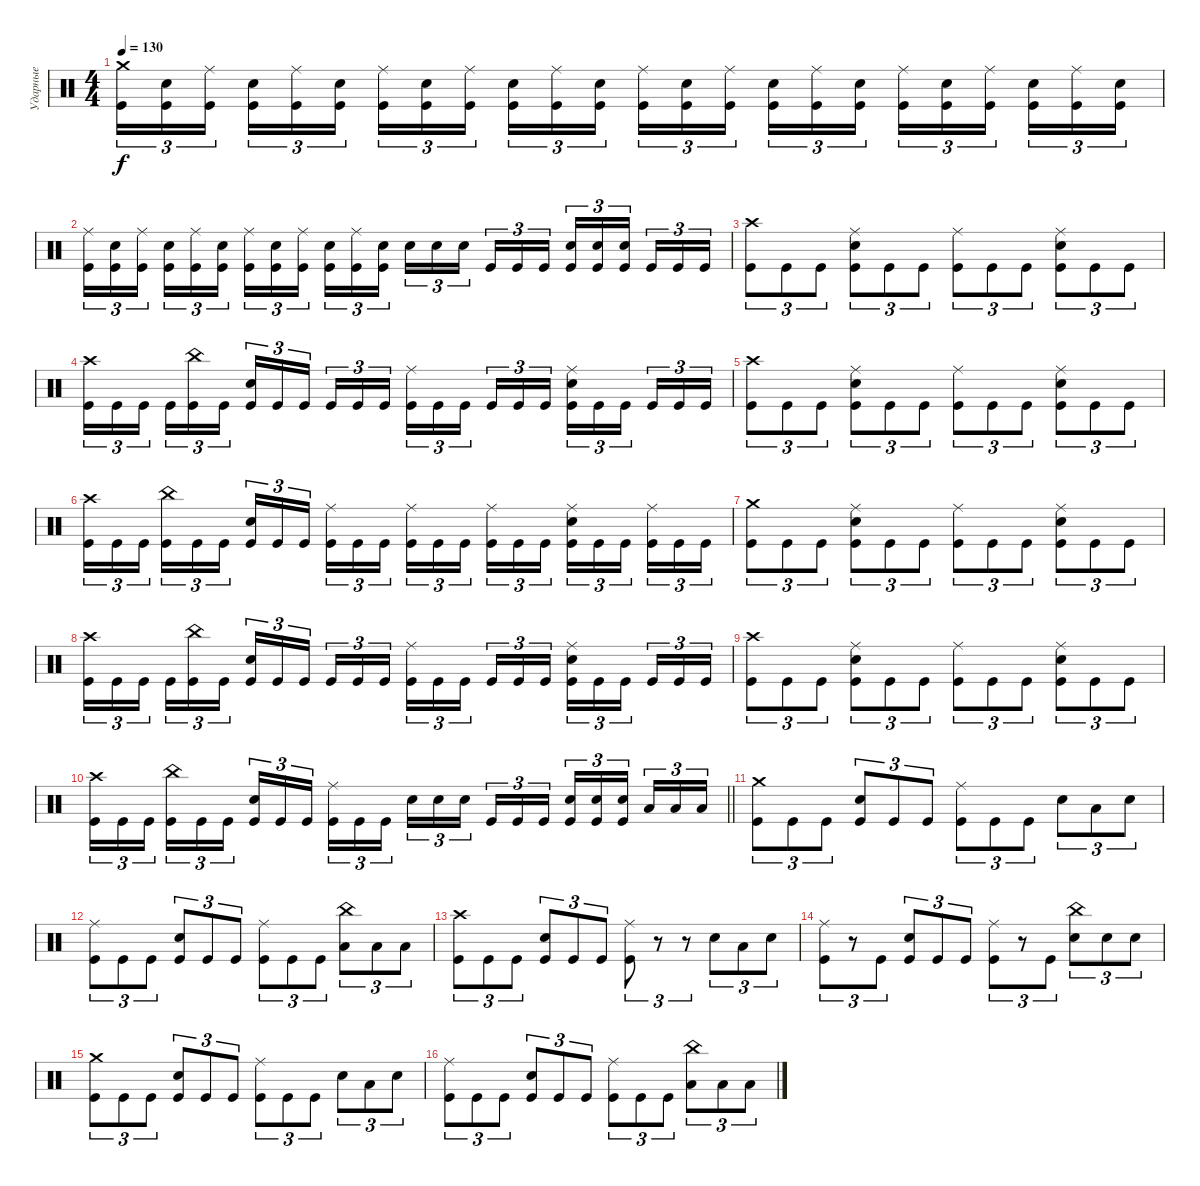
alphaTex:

\track ("Ударные" "Ударные") {instrument percussion}
\staff {score}
\articulation defaults
\ts (4 4)
\tempo 130
\clef neutral
\ks c
("Crash medium (hit)" "Kick (hit)").16{tu (3 2) dy f} ("Electric Snare (hit)" "Kick (hit)").16{tu (3 2)} ("Ride (middle)" "Kick (hit)").16{tu (3 2) beam splitsecondary} ("Electric Snare (hit)" "Kick (hit)").16{tu (3 2)} ("Ride (middle)" "Kick (hit)").16{tu (3 2)} ("Electric Snare (hit)" "Kick (hit)").16{tu (3 2)} ("Ride (middle)" "Kick (hit)").16{tu (3 2)} ("Electric Snare (hit)" "Kick (hit)").16{tu (3 2)} ("Ride (middle)" "Kick (hit)").16{tu (3 2) beam splitsecondary} ("Electric Snare (hit)" "Kick (hit)").16{tu (3 2)} ("Ride (middle)" "Kick (hit)").16{tu (3 2)} ("Electric Snare (hit)" "Kick (hit)").16{tu (3 2)} ("Ride (middle)" "Kick (hit)").16{tu (3 2)} ("Electric Snare (hit)" "Kick (hit)").16{tu (3 2)} ("Ride (middle)" "Kick (hit)").16{tu (3 2) beam splitsecondary} ("Electric Snare (hit)" "Kick (hit)").16{tu (3 2)} ("Ride (middle)" "Kick (hit)").16{tu (3 2)} ("Electric Snare (hit)" "Kick (hit)").16{tu (3 2)} ("Ride (middle)" "Kick (hit)").16{tu (3 2)} ("Electric Snare (hit)" "Kick (hit)").16{tu (3 2)} ("Ride (middle)" "Kick (hit)").16{tu (3 2) beam splitsecondary} ("Electric Snare (hit)" "Kick (hit)").16{tu (3 2)} ("Ride (middle)" "Kick (hit)").16{tu (3 2)} ("Electric Snare (hit)" "Kick (hit)").16{tu (3 2)} |
("Ride (middle)" "Kick (hit)").16{tu (3 2)} ("Electric Snare (hit)" "Kick (hit)").16{tu (3 2)} ("Ride (middle)" "Kick (hit)").16{tu (3 2) beam splitsecondary} ("Electric Snare (hit)" "Kick (hit)").16{tu (3 2)} ("Ride (middle)" "Kick (hit)").16{tu (3 2)} ("Electric Snare (hit)" "Kick (hit)").16{tu (3 2)} ("Ride (middle)" "Kick (hit)").16{tu (3 2)} ("Electric Snare (hit)" "Kick (hit)").16{tu (3 2)} ("Ride (middle)" "Kick (hit)").16{tu (3 2) beam splitsecondary} ("Electric Snare (hit)" "Kick (hit)").16{tu (3 2)} ("Ride (middle)" "Kick (hit)").16{tu (3 2)} ("Electric Snare (hit)" "Kick (hit)").16{tu (3 2)} "Electric Snare (hit)".16{tu (3 2)} "Electric Snare (hit)".16{tu (3 2)} "Electric Snare (hit)".16{tu (3 2) beam splitsecondary} "Kick (hit)".16{tu (3 2)} "Kick (hit)".16{tu (3 2)} "Kick (hit)".16{tu (3 2)} ("Electric Snare (hit)" "Kick (hit)").16{tu (3 2)} ("Electric Snare (hit)" "Kick (hit)").16{tu (3 2)} ("Electric Snare (hit)" "Kick (hit)").16{tu (3 2) beam splitsecondary} "Kick (hit)".16{tu (3 2)} "Kick (hit)".16{tu (3 2)} "Kick (hit)".16{tu (3 2)} |
("Crash high (hit)" "Kick (hit)").8{tu (3 2)} "Kick (hit)".8{tu (3 2)} "Kick (hit)".8{tu (3 2)} ("Ride (middle)" "Electric Snare (hit)" "Kick (hit)").8{tu (3 2)} "Kick (hit)".8{tu (3 2)} "Kick (hit)".8{tu (3 2)} ("Ride (middle)" "Kick (hit)").8{tu (3 2)} "Kick (hit)".8{tu (3 2)} "Kick (hit)".8{tu (3 2)} ("Ride (middle)" "Electric Snare (hit)" "Kick (hit)").8{tu (3 2)} "Kick (hit)".8{tu (3 2)} "Kick (hit)".8{tu (3 2)} |
("Crash high (hit)" "Kick (hit)").16{tu (3 2)} "Kick (hit)".16{tu (3 2)} "Kick (hit)".16{tu (3 2) beam splitsecondary} "Kick (hit)".16{tu (3 2)} ("China (hit)" "Kick (hit)").16{tu (3 2)} "Kick (hit)".16{tu (3 2)} ("Electric Snare (hit)" "Kick (hit)").16{tu (3 2)} "Kick (hit)".16{tu (3 2)} "Kick (hit)".16{tu (3 2) beam splitsecondary} "Kick (hit)".16{tu (3 2)} "Kick (hit)".16{tu (3 2)} "Kick (hit)".16{tu (3 2)} ("Ride (middle)" "Kick (hit)").16{tu (3 2)} "Kick (hit)".16{tu (3 2)} "Kick (hit)".16{tu (3 2) beam splitsecondary} "Kick (hit)".16{tu (3 2)} "Kick (hit)".16{tu (3 2)} "Kick (hit)".16{tu (3 2)} ("Ride (middle)" "Electric Snare (hit)" "Kick (hit)").16{tu (3 2)} "Kick (hit)".16{tu (3 2)} "Kick (hit)".16{tu (3 2) beam splitsecondary} "Kick (hit)".16{tu (3 2)} "Kick (hit)".16{tu (3 2)} "Kick (hit)".16{tu (3 2)} |
("Crash high (hit)" "Kick (hit)").8{tu (3 2)} "Kick (hit)".8{tu (3 2)} "Kick (hit)".8{tu (3 2)} ("Ride (middle)" "Electric Snare (hit)" "Kick (hit)").8{tu (3 2)} "Kick (hit)".8{tu (3 2)} "Kick (hit)".8{tu (3 2)} ("Ride (middle)" "Kick (hit)").8{tu (3 2)} "Kick (hit)".8{tu (3 2)} "Kick (hit)".8{tu (3 2)} ("Ride (middle)" "Electric Snare (hit)" "Kick (hit)").8{tu (3 2)} "Kick (hit)".8{tu (3 2)} "Kick (hit)".8{tu (3 2)} |
("Crash high (hit)" "Kick (hit)").16{tu (3 2)} "Kick (hit)".16{tu (3 2)} "Kick (hit)".16{tu (3 2) beam splitsecondary} ("China (hit)" "Kick (hit)").16{tu (3 2)} "Kick (hit)".16{tu (3 2)} "Kick (hit)".16{tu (3 2)} ("Electric Snare (hit)" "Kick (hit)").16{tu (3 2)} "Kick (hit)".16{tu (3 2)} "Kick (hit)".16{tu (3 2) beam splitsecondary} ("Ride (middle)" "Kick (hit)").16{tu (3 2)} "Kick (hit)".16{tu (3 2)} "Kick (hit)".16{tu (3 2)} ("Ride (middle)" "Kick (hit)").16{tu (3 2)} "Kick (hit)".16{tu (3 2)} "Kick (hit)".16{tu (3 2) beam splitsecondary} ("Ride (middle)" "Kick (hit)").16{tu (3 2)} "Kick (hit)".16{tu (3 2)} "Kick (hit)".16{tu (3 2)} ("Ride (middle)" "Electric Snare (hit)" "Kick (hit)").16{tu (3 2)} "Kick (hit)".16{tu (3 2)} "Kick (hit)".16{tu (3 2) beam splitsecondary} ("Ride (middle)" "Kick (hit)").16{tu (3 2)} "Kick (hit)".16{tu (3 2)} "Kick (hit)".16{tu (3 2)} |
("Crash medium (hit)" "Kick (hit)").8{tu (3 2)} "Kick (hit)".8{tu (3 2)} "Kick (hit)".8{tu (3 2)} ("Ride (middle)" "Electric Snare (hit)" "Kick (hit)").8{tu (3 2)} "Kick (hit)".8{tu (3 2)} "Kick (hit)".8{tu (3 2)} ("Ride (middle)" "Kick (hit)").8{tu (3 2)} "Kick (hit)".8{tu (3 2)} "Kick (hit)".8{tu (3 2)} ("Ride (middle)" "Electric Snare (hit)" "Kick (hit)").8{tu (3 2)} "Kick (hit)".8{tu (3 2)} "Kick (hit)".8{tu (3 2)} |
("Crash high (hit)" "Kick (hit)").16{tu (3 2)} "Kick (hit)".16{tu (3 2)} "Kick (hit)".16{tu (3 2) beam splitsecondary} "Kick (hit)".16{tu (3 2)} ("China (hit)" "Kick (hit)").16{tu (3 2)} "Kick (hit)".16{tu (3 2)} ("Electric Snare (hit)" "Kick (hit)").16{tu (3 2)} "Kick (hit)".16{tu (3 2)} "Kick (hit)".16{tu (3 2) beam splitsecondary} "Kick (hit)".16{tu (3 2)} "Kick (hit)".16{tu (3 2)} "Kick (hit)".16{tu (3 2)} ("Ride (middle)" "Kick (hit)").16{tu (3 2)} "Kick (hit)".16{tu (3 2)} "Kick (hit)".16{tu (3 2) beam splitsecondary} "Kick (hit)".16{tu (3 2)} "Kick (hit)".16{tu (3 2)} "Kick (hit)".16{tu (3 2)} ("Ride (middle)" "Electric Snare (hit)" "Kick (hit)").16{tu (3 2)} "Kick (hit)".16{tu (3 2)} "Kick (hit)".16{tu (3 2) beam splitsecondary} "Kick (hit)".16{tu (3 2)} "Kick (hit)".16{tu (3 2)} "Kick (hit)".16{tu (3 2)} |
("Crash high (hit)" "Kick (hit)").8{tu (3 2)} "Kick (hit)".8{tu (3 2)} "Kick (hit)".8{tu (3 2)} ("Ride (middle)" "Electric Snare (hit)" "Kick (hit)").8{tu (3 2)} "Kick (hit)".8{tu (3 2)} "Kick (hit)".8{tu (3 2)} ("Ride (middle)" "Kick (hit)").8{tu (3 2)} "Kick (hit)".8{tu (3 2)} "Kick (hit)".8{tu (3 2)} ("Ride (middle)" "Electric Snare (hit)" "Kick (hit)").8{tu (3 2)} "Kick (hit)".8{tu (3 2)} "Kick (hit)".8{tu (3 2)} |
\barLineRight lightlight
("Crash high (hit)" "Kick (hit)").16{tu (3 2)} "Kick (hit)".16{tu (3 2)} "Kick (hit)".16{tu (3 2) beam splitsecondary} ("China (hit)" "Kick (hit)").16{tu (3 2)} "Kick (hit)".16{tu (3 2)} "Kick (hit)".16{tu (3 2)} ("Electric Snare (hit)" "Kick (hit)").16{tu (3 2)} "Kick (hit)".16{tu (3 2)} "Kick (hit)".16{tu (3 2) beam splitsecondary} ("Ride (middle)" "Kick (hit)").16{tu (3 2)} "Kick (hit)".16{tu (3 2)} "Kick (hit)".16{tu (3 2)} "Electric Snare (hit)".16{tu (3 2)} "Electric Snare (hit)".16{tu (3 2)} "Electric Snare (hit)".16{tu (3 2) beam splitsecondary} "Kick (hit)".16{tu (3 2)} "Kick (hit)".16{tu (3 2)} "Kick (hit)".16{tu (3 2)} ("Electric Snare (hit)" "Kick (hit)").16{tu (3 2)} ("Electric Snare (hit)" "Kick (hit)").16{tu (3 2)} ("Electric Snare (hit)" "Kick (hit)").16{tu (3 2) beam splitsecondary} "Low Floor Tom (hit)".16{tu (3 2)} "Low Floor Tom (hit)".16{tu (3 2)} "Low Floor Tom (hit)".16{tu (3 2)} |
\section ("" " ")
("Crash medium (hit)" "Kick (hit)").8{tu (3 2)} "Kick (hit)".8{tu (3 2)} "Kick (hit)".8{tu (3 2)} ("Electric Snare (hit)" "Kick (hit)").8{tu (3 2)} "Kick (hit)".8{tu (3 2)} "Kick (hit)".8{tu (3 2)} ("Ride (middle)" "Kick (hit)").8{tu (3 2)} "Kick (hit)".8{tu (3 2)} "Kick (hit)".8{tu (3 2)} "Electric Snare (hit)".8{tu (3 2)} "Low Floor Tom (hit)".8{tu (3 2)} "Electric Snare (hit)".8{tu (3 2)} |
("Ride (middle)" "Kick (hit)").8{tu (3 2)} "Kick (hit)".8{tu (3 2)} "Kick (hit)".8{tu (3 2)} ("Electric Snare (hit)" "Kick (hit)").8{tu (3 2)} "Kick (hit)".8{tu (3 2)} "Kick (hit)".8{tu (3 2)} ("Ride (middle)" "Kick (hit)").8{tu (3 2)} "Kick (hit)".8{tu (3 2)} "Kick (hit)".8{tu (3 2)} ("China (hit)" "Low Tom (hit)").8{tu (3 2)} "Low Tom (hit)".8{tu (3 2)} "Low Tom (hit)".8{tu (3 2)} |
("Crash high (hit)" "Kick (hit)").8{tu (3 2)} "Kick (hit)".8{tu (3 2)} "Kick (hit)".8{tu (3 2)} ("Electric Snare (hit)" "Kick (hit)").8{tu (3 2)} "Kick (hit)".8{tu (3 2)} "Kick (hit)".8{tu (3 2)} ("Ride (middle)" "Kick (hit)").8{tu (3 2)} r.8{tu (3 2)} r.8{tu (3 2)} "Electric Snare (hit)".8{tu (3 2)} "Low Floor Tom (hit)".8{tu (3 2)} "Electric Snare (hit)".8{tu (3 2)} |
("Ride (middle)" "Kick (hit)").8{tu (3 2)} r.8{tu (3 2)} "Kick (hit)".8{tu (3 2)} ("Electric Snare (hit)" "Kick (hit)").8{tu (3 2)} "Kick (hit)".8{tu (3 2)} "Kick (hit)".8{tu (3 2)} ("Ride (middle)" "Kick (hit)").8{tu (3 2)} r.8{tu (3 2)} "Kick (hit)".8{tu (3 2)} ("China (hit)" "Electric Snare (hit)").8{tu (3 2)} "Electric Snare (hit)".8{tu (3 2)} "Electric Snare (hit)".8{tu (3 2)} |
("Crash medium (hit)" "Kick (hit)").8{tu (3 2)} "Kick (hit)".8{tu (3 2)} "Kick (hit)".8{tu (3 2)} ("Electric Snare (hit)" "Kick (hit)").8{tu (3 2)} "Kick (hit)".8{tu (3 2)} "Kick (hit)".8{tu (3 2)} ("Ride (middle)" "Kick (hit)").8{tu (3 2)} "Kick (hit)".8{tu (3 2)} "Kick (hit)".8{tu (3 2)} "Electric Snare (hit)".8{tu (3 2)} "Low Floor Tom (hit)".8{tu (3 2)} "Electric Snare (hit)".8{tu (3 2)} |
("Ride (middle)" "Kick (hit)").8{tu (3 2)} "Kick (hit)".8{tu (3 2)} "Kick (hit)".8{tu (3 2)} ("Electric Snare (hit)" "Kick (hit)").8{tu (3 2)} "Kick (hit)".8{tu (3 2)} "Kick (hit)".8{tu (3 2)} ("Ride (middle)" "Kick (hit)").8{tu (3 2)} "Kick (hit)".8{tu (3 2)} "Kick (hit)".8{tu (3 2)} ("China (hit)" "Low Tom (hit)").8{tu (3 2)} "Low Tom (hit)".8{tu (3 2)} "Low Tom (hit)".8{tu (3 2)}
